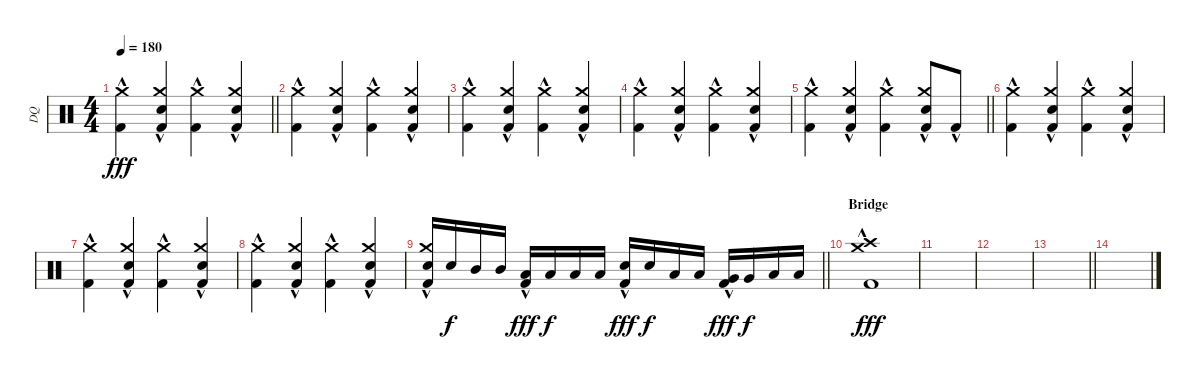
\track ("DQ" "DQ") {instrument percussion}
\staff {score}
\articulation defaults
\ts (4 4)
\tempo 180
\clef neutral
\barLineRight lightlight
\ks c
("Kick (hit) 2"{hac} "Crash medium (hit)").4{dy fff} ("Kick (hit) 2"{hac} "Snare (hit) 2"{hac} "Crash medium (hit)").4 ("Kick (hit) 2"{hac} "Crash medium (hit)").4 ("Kick (hit) 2"{hac} "Snare (hit) 2"{hac} "Crash medium (hit)").4 |
\section ("" "")
("Kick (hit) 2"{hac} "Crash medium (hit)").4 ("Kick (hit) 2"{hac} "Snare (hit) 2"{hac} "Crash medium (hit)").4 ("Kick (hit) 2"{hac} "Crash medium (hit)").4 ("Kick (hit) 2"{hac} "Snare (hit) 2"{hac} "Crash medium (hit)").4 |
("Kick (hit) 2"{hac} "Crash medium (hit)").4 ("Kick (hit) 2"{hac} "Snare (hit) 2"{hac} "Crash medium (hit)").4 ("Kick (hit) 2"{hac} "Crash medium (hit)").4 ("Kick (hit) 2"{hac} "Snare (hit) 2"{hac} "Crash medium (hit)").4 |
("Kick (hit) 2"{hac} "Crash medium (hit)").4 ("Kick (hit) 2"{hac} "Snare (hit) 2"{hac} "Crash medium (hit)").4 ("Kick (hit) 2"{hac} "Crash medium (hit)").4 ("Kick (hit) 2"{hac} "Snare (hit) 2"{hac} "Crash medium (hit)").4 |
\barLineRight lightlight
("Kick (hit) 2"{hac} "Crash medium (hit)").4 ("Kick (hit) 2"{hac} "Snare (hit) 2"{hac} "Crash medium (hit)").4 ("Kick (hit) 2"{hac} "Crash medium (hit)").4 ("Kick (hit) 2"{hac} "Snare (hit) 2"{hac} "Crash medium (hit)").8 "Kick (hit) 2"{hac}.8 |
\section ("" "")
("Kick (hit) 2"{hac} "Crash medium (hit)").4 ("Kick (hit) 2"{hac} "Snare (hit) 2"{hac} "Crash medium (hit)").4 ("Kick (hit) 2"{hac} "Crash medium (hit)").4 ("Kick (hit) 2"{hac} "Snare (hit) 2"{hac} "Crash medium (hit)").4 |
("Kick (hit) 2"{hac} "Crash medium (hit)").4 ("Kick (hit) 2"{hac} "Snare (hit) 2"{hac} "Crash medium (hit)").4 ("Kick (hit) 2"{hac} "Crash medium (hit)").4 ("Kick (hit) 2"{hac} "Snare (hit) 2"{hac} "Crash medium (hit)").4 |
("Kick (hit) 2"{hac} "Crash medium (hit)").4 ("Kick (hit) 2"{hac} "Snare (hit) 2"{hac} "Crash medium (hit)").4 ("Kick (hit) 2"{hac} "Crash medium (hit)").4 ("Kick (hit) 2"{hac} "Snare (hit) 2"{hac} "Crash medium (hit)").4 |
\barLineRight lightlight
("Kick (hit) 2"{hac} "Snare (hit) 2" "Crash medium (hit)").16 "Snare (hit) 2".16{dy f} "Mid Tom (hit)".16 "Mid Tom (hit)".16 ("Kick (hit) 2"{hac} "Low Tom (hit)").16{dy fff} "Low Tom (hit)".16{dy f} "Low Tom (hit)".16 "Low Tom (hit)".16 ("Kick (hit) 2"{hac} "Snare (hit) 2").16{dy fff} "Snare (hit) 2".16{dy f} "Low Tom (hit)".16 "Low Tom (hit)".16 ("Kick (hit) 2"{hac} "Very Low Tom (hit)").16{dy fff} "Very Low Tom (hit)".16{dy f} "Low Floor Tom (hit)".16 "Low Floor Tom (hit)".16 |
\section ("" "Bridge")
("Kick (hit) 2"{hac} "Crash medium (hit)" "Crash high (hit)").1{dy fff} |
|
|
\barLineRight lightlight
|
\section ("" "")
